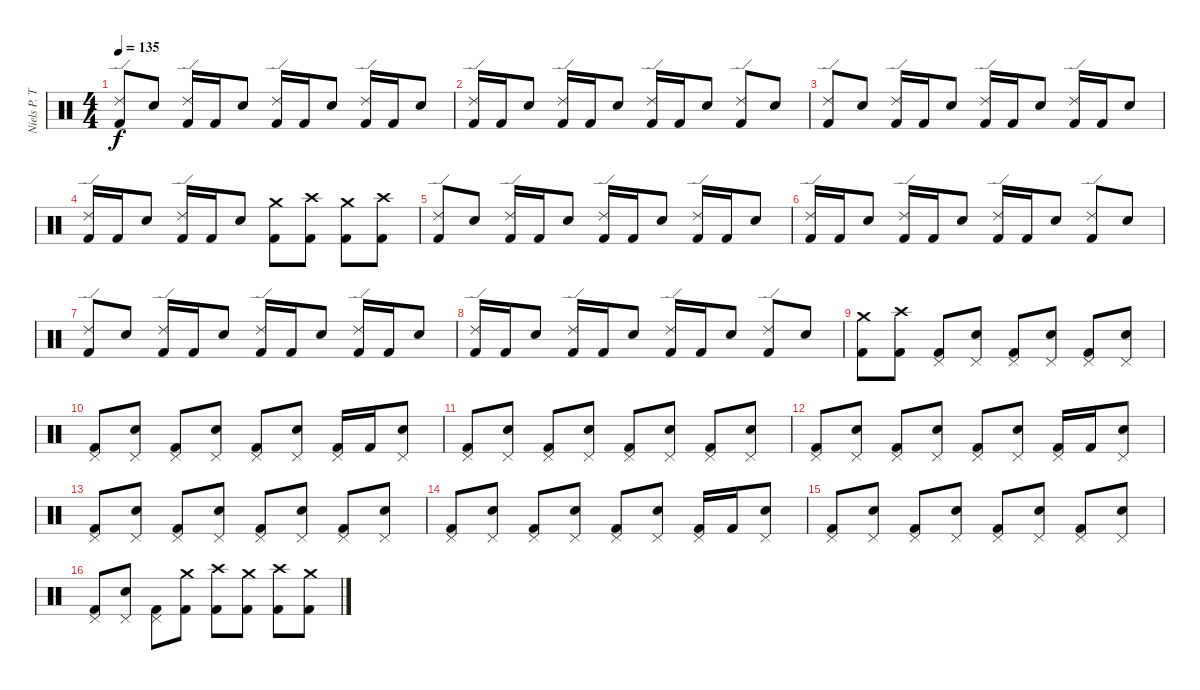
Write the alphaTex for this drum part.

\track ("Niels P. Thogersen" "Niels P. T") {instrument percussion}
\staff {score}
\articulation defaults
\ts (4 4)
\tempo 135
\clef neutral
\ks c
("Ride (edge) 2" "Kick (hit) 2").8{dy f} "Snare (hit) 2".8 ("Ride (edge) 2" "Kick (hit) 2").16 "Kick (hit) 2".16 "Snare (hit) 2".8 ("Ride (edge) 2" "Kick (hit) 2").16 "Kick (hit) 2".16 "Snare (hit) 2".8 ("Ride (edge) 2" "Kick (hit) 2").16 "Kick (hit) 2".16 "Snare (hit) 2".8 |
("Ride (edge) 2" "Kick (hit) 2").16 "Kick (hit) 2".16 "Snare (hit) 2".8 ("Ride (edge) 2" "Kick (hit) 2").16 "Kick (hit) 2".16 "Snare (hit) 2".8 ("Ride (edge) 2" "Kick (hit) 2").16 "Kick (hit) 2".16 "Snare (hit) 2".8 ("Ride (edge) 2" "Kick (hit) 2").8 "Snare (hit) 2".8 |
("Ride (edge) 2" "Kick (hit) 2").8 "Snare (hit) 2".8 ("Ride (edge) 2" "Kick (hit) 2").16 "Kick (hit) 2".16 "Snare (hit) 2".8 ("Ride (edge) 2" "Kick (hit) 2").16 "Kick (hit) 2".16 "Snare (hit) 2".8 ("Ride (edge) 2" "Kick (hit) 2").16 "Kick (hit) 2".16 "Snare (hit) 2".8 |
("Ride (edge) 2" "Kick (hit) 2").16 "Kick (hit) 2".16 "Snare (hit) 2".8 ("Ride (edge) 2" "Kick (hit) 2").16 "Kick (hit) 2".16 "Snare (hit) 2".8 ("Crash medium (hit)" "Kick (hit) 2").8 ("Crash high (hit)" "Kick (hit) 2").8 ("Crash medium (hit)" "Kick (hit) 2").8 ("Crash high (hit)" "Kick (hit) 2").8 |
("Ride (edge) 2" "Kick (hit) 2").8 "Snare (hit) 2".8 ("Ride (edge) 2" "Kick (hit) 2").16 "Kick (hit) 2".16 "Snare (hit) 2".8 ("Ride (edge) 2" "Kick (hit) 2").16 "Kick (hit) 2".16 "Snare (hit) 2".8 ("Ride (edge) 2" "Kick (hit) 2").16 "Kick (hit) 2".16 "Snare (hit) 2".8 |
("Ride (edge) 2" "Kick (hit) 2").16 "Kick (hit) 2".16 "Snare (hit) 2".8 ("Ride (edge) 2" "Kick (hit) 2").16 "Kick (hit) 2".16 "Snare (hit) 2".8 ("Ride (edge) 2" "Kick (hit) 2").16 "Kick (hit) 2".16 "Snare (hit) 2".8 ("Ride (edge) 2" "Kick (hit) 2").8 "Snare (hit) 2".8 |
("Ride (edge) 2" "Kick (hit) 2").8 "Snare (hit) 2".8 ("Ride (edge) 2" "Kick (hit) 2").16 "Kick (hit) 2".16 "Snare (hit) 2".8 ("Ride (edge) 2" "Kick (hit) 2").16 "Kick (hit) 2".16 "Snare (hit) 2".8 ("Ride (edge) 2" "Kick (hit) 2").16 "Kick (hit) 2".16 "Snare (hit) 2".8 |
("Ride (edge) 2" "Kick (hit) 2").16 "Kick (hit) 2".16 "Snare (hit) 2".8 ("Ride (edge) 2" "Kick (hit) 2").16 "Kick (hit) 2".16 "Snare (hit) 2".8 ("Ride (edge) 2" "Kick (hit) 2").16 "Kick (hit) 2".16 "Snare (hit) 2".8 ("Ride (edge) 2" "Kick (hit) 2").8 "Snare (hit) 2".8 |
("Crash medium (hit)" "Kick (hit) 2").8 ("Crash high (hit)" "Kick (hit) 2").8 ("Pedal Hi-Hat (hit)" "Kick (hit) 2").8 ("Pedal Hi-Hat (hit)" "Snare (hit) 2").8 ("Pedal Hi-Hat (hit)" "Kick (hit) 2").8 ("Pedal Hi-Hat (hit)" "Snare (hit) 2").8 ("Pedal Hi-Hat (hit)" "Kick (hit) 2").8 ("Pedal Hi-Hat (hit)" "Snare (hit) 2").8 |
("Pedal Hi-Hat (hit)" "Kick (hit) 2").8 ("Pedal Hi-Hat (hit)" "Snare (hit) 2").8 ("Pedal Hi-Hat (hit)" "Kick (hit) 2").8 ("Pedal Hi-Hat (hit)" "Snare (hit) 2").8 ("Pedal Hi-Hat (hit)" "Kick (hit) 2").8 ("Pedal Hi-Hat (hit)" "Snare (hit) 2").8 ("Pedal Hi-Hat (hit)" "Kick (hit) 2").16 "Kick (hit) 2".16 ("Pedal Hi-Hat (hit)" "Snare (hit) 2").8 |
("Pedal Hi-Hat (hit)" "Kick (hit) 2").8 ("Pedal Hi-Hat (hit)" "Snare (hit) 2").8 ("Pedal Hi-Hat (hit)" "Kick (hit) 2").8 ("Pedal Hi-Hat (hit)" "Snare (hit) 2").8 ("Pedal Hi-Hat (hit)" "Kick (hit) 2").8 ("Pedal Hi-Hat (hit)" "Snare (hit) 2").8 ("Pedal Hi-Hat (hit)" "Kick (hit) 2").8 ("Pedal Hi-Hat (hit)" "Snare (hit) 2").8 |
("Pedal Hi-Hat (hit)" "Kick (hit) 2").8 ("Pedal Hi-Hat (hit)" "Snare (hit) 2").8 ("Pedal Hi-Hat (hit)" "Kick (hit) 2").8 ("Pedal Hi-Hat (hit)" "Snare (hit) 2").8 ("Pedal Hi-Hat (hit)" "Kick (hit) 2").8 ("Pedal Hi-Hat (hit)" "Snare (hit) 2").8 ("Pedal Hi-Hat (hit)" "Kick (hit) 2").16 "Kick (hit) 2".16 ("Pedal Hi-Hat (hit)" "Snare (hit) 2").8 |
("Pedal Hi-Hat (hit)" "Kick (hit) 2").8 ("Pedal Hi-Hat (hit)" "Snare (hit) 2").8 ("Pedal Hi-Hat (hit)" "Kick (hit) 2").8 ("Pedal Hi-Hat (hit)" "Snare (hit) 2").8 ("Pedal Hi-Hat (hit)" "Kick (hit) 2").8 ("Pedal Hi-Hat (hit)" "Snare (hit) 2").8 ("Pedal Hi-Hat (hit)" "Kick (hit) 2").8 ("Pedal Hi-Hat (hit)" "Snare (hit) 2").8 |
("Pedal Hi-Hat (hit)" "Kick (hit) 2").8 ("Pedal Hi-Hat (hit)" "Snare (hit) 2").8 ("Pedal Hi-Hat (hit)" "Kick (hit) 2").8 ("Pedal Hi-Hat (hit)" "Snare (hit) 2").8 ("Pedal Hi-Hat (hit)" "Kick (hit) 2").8 ("Pedal Hi-Hat (hit)" "Snare (hit) 2").8 ("Pedal Hi-Hat (hit)" "Kick (hit) 2").16 "Kick (hit) 2".16 ("Pedal Hi-Hat (hit)" "Snare (hit) 2").8 |
("Pedal Hi-Hat (hit)" "Kick (hit) 2").8 ("Pedal Hi-Hat (hit)" "Snare (hit) 2").8 ("Pedal Hi-Hat (hit)" "Kick (hit) 2").8 ("Pedal Hi-Hat (hit)" "Snare (hit) 2").8 ("Pedal Hi-Hat (hit)" "Kick (hit) 2").8 ("Pedal Hi-Hat (hit)" "Snare (hit) 2").8 ("Pedal Hi-Hat (hit)" "Kick (hit) 2").8 ("Pedal Hi-Hat (hit)" "Snare (hit) 2").8 |
("Pedal Hi-Hat (hit)" "Kick (hit) 2").8 ("Pedal Hi-Hat (hit)" "Snare (hit) 2").8 ("Pedal Hi-Hat (hit)" "Kick (hit) 2").8 ("Crash medium (hit)" "Kick (hit) 2").8 ("Crash high (hit)" "Kick (hit) 2").8 ("Crash medium (hit)" "Kick (hit) 2").8 ("Crash high (hit)" "Kick (hit) 2").8 ("Crash medium (hit)" "Kick (hit) 2").8
